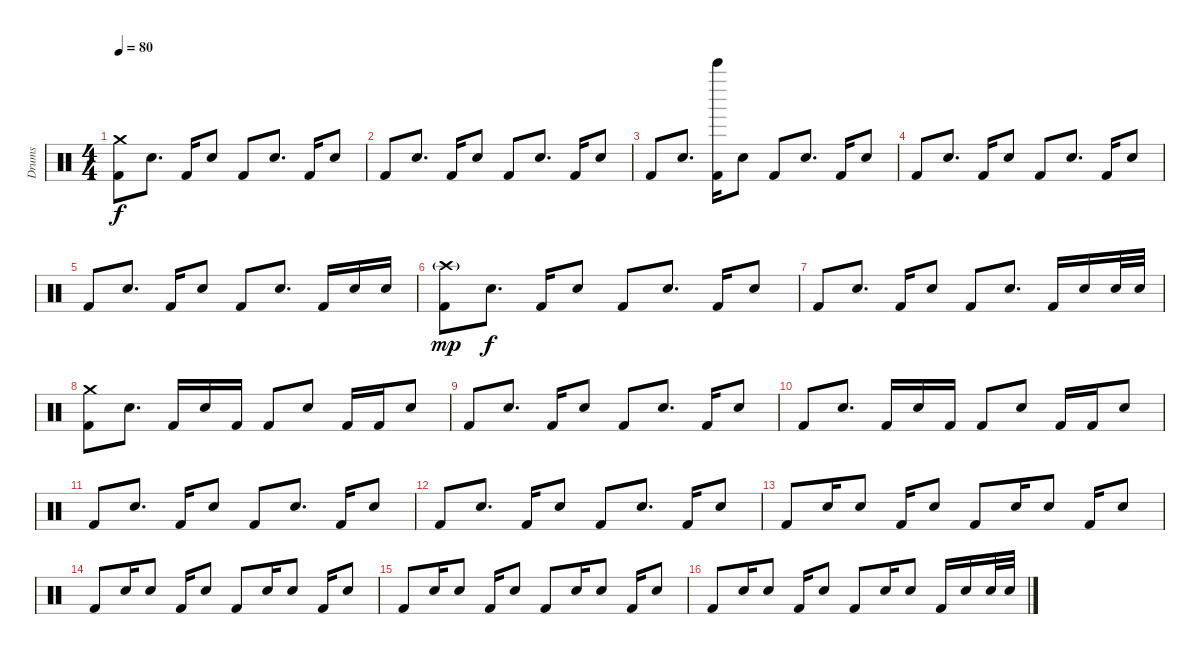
\track ("Drums" "Drums") {instrument percussion}
\staff {score}
\articulation defaults
\ts (4 4)
\tempo 80
\clef neutral
\ks c
("Kick (hit) 2" "Crash medium (hit)").8{dy f} "Snare (hit) 2".8{d} "Kick (hit) 2".16 "Snare (hit) 2".8 "Kick (hit) 2".8 "Snare (hit) 2".8{d} "Kick (hit) 2".16 "Snare (hit) 2".8 |
"Kick (hit) 2".8 "Snare (hit) 2".8{d} "Kick (hit) 2".16 "Snare (hit) 2".8 "Kick (hit) 2".8 "Snare (hit) 2".8{d} "Kick (hit) 2".16 "Snare (hit) 2".8 |
"Kick (hit) 2".8 "Snare (hit) 2".8{d} ("Kick (hit) 2" "Bell Tree (hit)").16 "Snare (hit) 2".8 "Kick (hit) 2".8 "Snare (hit) 2".8{d} "Kick (hit) 2".16 "Snare (hit) 2".8 |
"Kick (hit) 2".8 "Snare (hit) 2".8{d} "Kick (hit) 2".16 "Snare (hit) 2".8 "Kick (hit) 2".8 "Snare (hit) 2".8{d} "Kick (hit) 2".16 "Snare (hit) 2".8 |
"Kick (hit) 2".8 "Snare (hit) 2".8{d} "Kick (hit) 2".16 "Snare (hit) 2".8 "Kick (hit) 2".8 "Snare (hit) 2".8{d} "Kick (hit) 2".16 "Snare (hit) 2".16 "Snare (hit) 2".16 |
("Kick (hit) 2" "Crash high (hit)"{g}).8{dy mp} "Snare (hit) 2".8{d dy f} "Kick (hit) 2".16 "Snare (hit) 2".8 "Kick (hit) 2".8 "Snare (hit) 2".8{d} "Kick (hit) 2".16 "Snare (hit) 2".8 |
"Kick (hit) 2".8 "Snare (hit) 2".8{d} "Kick (hit) 2".16 "Snare (hit) 2".8 "Kick (hit) 2".8 "Snare (hit) 2".8{d} "Kick (hit) 2".16 "Snare (hit) 2".16 "Snare (hit) 2".32 "Snare (hit) 2".32 |
("Kick (hit) 2" "Crash medium (hit)").8 "Snare (hit) 2".8{d} "Kick (hit) 2".16 "Snare (hit) 2".16 "Kick (hit) 2".16 "Kick (hit) 2".8 "Snare (hit) 2".8 "Kick (hit) 2".16 "Kick (hit) 2".16 "Snare (hit) 2".8 |
"Kick (hit) 2".8 "Snare (hit) 2".8{d} "Kick (hit) 2".16 "Snare (hit) 2".8 "Kick (hit) 2".8 "Snare (hit) 2".8{d} "Kick (hit) 2".16 "Snare (hit) 2".8 |
"Kick (hit) 2".8 "Snare (hit) 2".8{d} "Kick (hit) 2".16 "Snare (hit) 2".16 "Kick (hit) 2".16 "Kick (hit) 2".8 "Snare (hit) 2".8 "Kick (hit) 2".16 "Kick (hit) 2".16 "Snare (hit) 2".8 |
"Kick (hit) 2".8 "Snare (hit) 2".8{d} "Kick (hit) 2".16 "Snare (hit) 2".8 "Kick (hit) 2".8 "Snare (hit) 2".8{d} "Kick (hit) 2".16 "Snare (hit) 2".8 |
"Kick (hit) 2".8 "Snare (hit) 2".8{d} "Kick (hit) 2".16 "Snare (hit) 2".8 "Kick (hit) 2".8 "Snare (hit) 2".8{d} "Kick (hit) 2".16 "Snare (hit) 2".8 |
"Kick (hit) 2".8 "Snare (hit) 2".16 "Snare (hit) 2".8 "Kick (hit) 2".16 "Snare (hit) 2".8 "Kick (hit) 2".8 "Snare (hit) 2".16 "Snare (hit) 2".8 "Kick (hit) 2".16 "Snare (hit) 2".8 |
"Kick (hit) 2".8 "Snare (hit) 2".16 "Snare (hit) 2".8 "Kick (hit) 2".16 "Snare (hit) 2".8 "Kick (hit) 2".8 "Snare (hit) 2".16 "Snare (hit) 2".8 "Kick (hit) 2".16 "Snare (hit) 2".8 |
"Kick (hit) 2".8 "Snare (hit) 2".16 "Snare (hit) 2".8 "Kick (hit) 2".16 "Snare (hit) 2".8 "Kick (hit) 2".8 "Snare (hit) 2".16 "Snare (hit) 2".8 "Kick (hit) 2".16 "Snare (hit) 2".8 |
"Kick (hit) 2".8 "Snare (hit) 2".16 "Snare (hit) 2".8 "Kick (hit) 2".16 "Snare (hit) 2".8 "Kick (hit) 2".8 "Snare (hit) 2".16 "Snare (hit) 2".8 "Kick (hit) 2".16 "Snare (hit) 2".16 "Snare (hit) 2".32 "Snare (hit) 2".32
